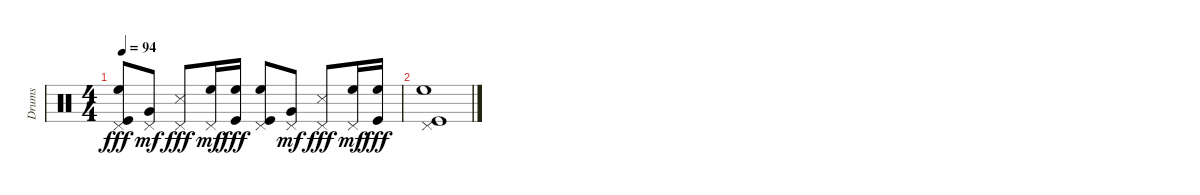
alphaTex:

\track ("Drums" "Drums") {instrument percussion}
\staff {score}
\articulation defaults
\ts (4 4)
\tempo 94
\clef neutral
\ks c
("Pedal Hi-Hat (hit)" "High Floor Tom (hit)" "Kick (hit)").8{dy fff} ("Pedal Hi-Hat (hit)" "Very Low Tom (hit)").8{dy mf} ("Pedal Hi-Hat (hit)" "Snare (side stick) 3").8{dy fff} ("Pedal Hi-Hat (hit)" "High Floor Tom (hit)").16{dy mf} ("High Floor Tom (hit)" "Kick (hit)").16{dy fff} ("Pedal Hi-Hat (hit)" "High Floor Tom (hit)" "Kick (hit)").8 ("Pedal Hi-Hat (hit)" "Very Low Tom (hit)").8{dy mf} ("Pedal Hi-Hat (hit)" "Snare (side stick) 3").8{dy fff} ("Pedal Hi-Hat (hit)" "High Floor Tom (hit)").16{dy mf} ("High Floor Tom (hit)" "Kick (hit)").16{dy fff} |
("Pedal Hi-Hat (hit)" "High Floor Tom (hit)" "Kick (hit)").1
